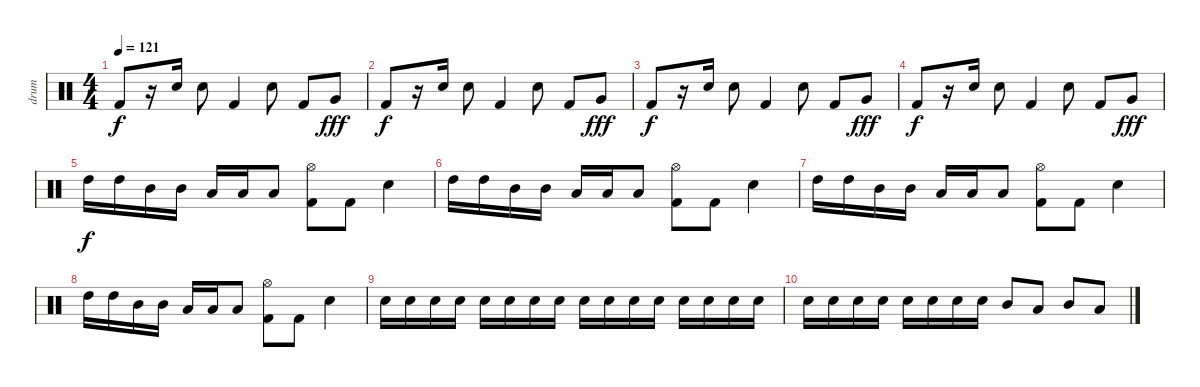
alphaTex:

\track ("drum" "drum") {instrument percussion}
\staff {score}
\articulation defaults
\ts (4 4)
\tempo 121
\clef neutral
\ks c "Kick (hit) 2".8{dy f}
r.16 "Electric Snare (hit)".16 "Electric Snare (hit)".8 "Kick (hit) 2".4 "Electric Snare (hit)".8 "Kick (hit) 2".8 "Very Low Tom (hit)".8{dy fff} |
"Kick (hit) 2".8{dy f} r.16 "Electric Snare (hit)".16 "Electric Snare (hit)".8 "Kick (hit) 2".4 "Electric Snare (hit)".8 "Kick (hit) 2".8 "Very Low Tom (hit)".8{dy fff} |
"Kick (hit) 2".8{dy f} r.16 "Electric Snare (hit)".16 "Electric Snare (hit)".8 "Kick (hit) 2".4 "Electric Snare (hit)".8 "Kick (hit) 2".8 "Very Low Tom (hit)".8{dy fff} |
"Kick (hit) 2".8{dy f} r.16 "Electric Snare (hit)".16 "Electric Snare (hit)".8 "Kick (hit) 2".4 "Electric Snare (hit)".8 "Kick (hit) 2".8 "Very Low Tom (hit)".8{dy fff} |
"High Tom (hit)".16{dy f} "High Tom (hit)".16 "Mid Tom (hit)".16 "Mid Tom (hit)".16 "Low Tom (hit)".16 "Low Tom (hit)".16 "Low Tom (hit)".8 ("Hi-Hat (open)" "Kick (hit) 2").8 "Kick (hit) 2".8 "Electric Snare (hit)".4 |
"High Tom (hit)".16 "High Tom (hit)".16 "Mid Tom (hit)".16 "Mid Tom (hit)".16 "Low Tom (hit)".16 "Low Tom (hit)".16 "Low Tom (hit)".8 ("Hi-Hat (open)" "Kick (hit) 2").8 "Kick (hit) 2".8 "Electric Snare (hit)".4 |
"High Tom (hit)".16 "High Tom (hit)".16 "Mid Tom (hit)".16 "Mid Tom (hit)".16 "Low Tom (hit)".16 "Low Tom (hit)".16 "Low Tom (hit)".8 ("Hi-Hat (open)" "Kick (hit) 2").8 "Kick (hit) 2".8 "Electric Snare (hit)".4 |
"High Tom (hit)".16 "High Tom (hit)".16 "Mid Tom (hit)".16 "Mid Tom (hit)".16 "Low Tom (hit)".16 "Low Tom (hit)".16 "Low Tom (hit)".8 ("Hi-Hat (open)" "Kick (hit) 2").8 "Kick (hit) 2".8 "Electric Snare (hit)".4 |
"Electric Snare (hit)".16 "Electric Snare (hit)".16 "Electric Snare (hit)".16 "Electric Snare (hit)".16 "Electric Snare (hit)".16 "Electric Snare (hit)".16 "Electric Snare (hit)".16 "Electric Snare (hit)".16 "Electric Snare (hit)".16 "Electric Snare (hit)".16 "Electric Snare (hit)".16 "Electric Snare (hit)".16 "Electric Snare (hit)".16 "Electric Snare (hit)".16 "Electric Snare (hit)".16 "Electric Snare (hit)".16 |
"Electric Snare (hit)".16 "Electric Snare (hit)".16 "Electric Snare (hit)".16 "Electric Snare (hit)".16 "Electric Snare (hit)".16 "Electric Snare (hit)".16 "Electric Snare (hit)".16 "Electric Snare (hit)".16 "Mid Tom (hit)".8 "Low Tom (hit)".8 "Mid Tom (hit)".8 "Low Floor Tom (hit)".8
